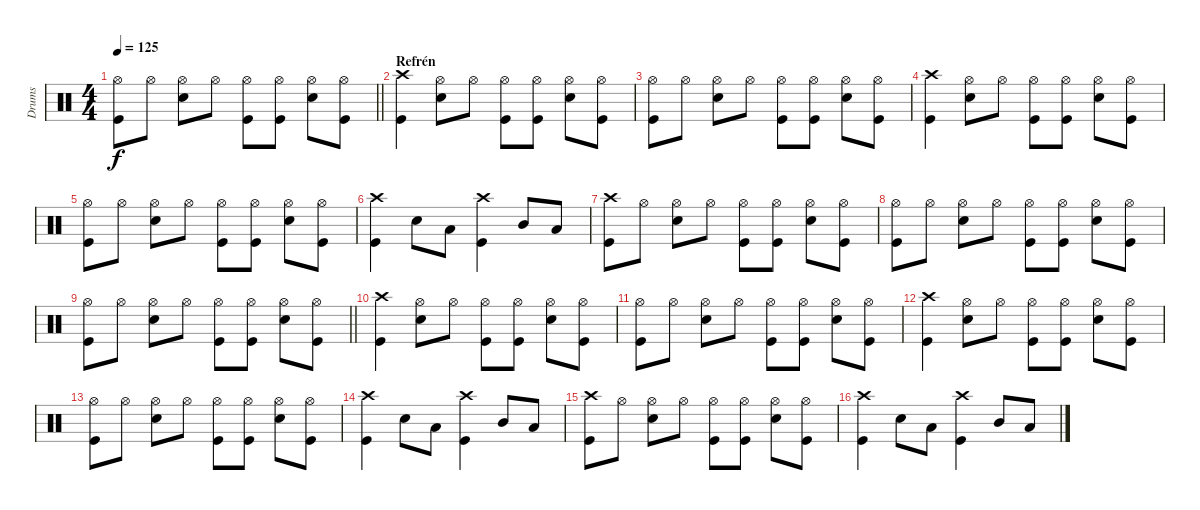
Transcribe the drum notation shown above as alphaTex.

\track ("Drums" "Drums") {instrument percussion}
\staff {score}
\articulation defaults
\ts (4 4)
\tempo 125
\clef neutral
\barLineRight lightlight
\ks c
("Hi-Hat (open)" "Kick (hit)").8{dy f} "Hi-Hat (open)".8 ("Hi-Hat (open)" "Electric Snare (hit)").8 "Hi-Hat (open)".8 ("Hi-Hat (open)" "Kick (hit)").8 ("Hi-Hat (open)" "Kick (hit)").8 ("Hi-Hat (open)" "Electric Snare (hit)").8 ("Hi-Hat (open)" "Kick (hit)").8 |
\section ("" "Refrén")
("Crash high (hit)" "Kick (hit)").4 ("Hi-Hat (open)" "Electric Snare (hit)").8 "Hi-Hat (open)".8 ("Hi-Hat (open)" "Kick (hit)").8 ("Hi-Hat (open)" "Kick (hit)").8 ("Hi-Hat (open)" "Electric Snare (hit)").8 ("Hi-Hat (open)" "Kick (hit)").8 |
("Hi-Hat (open)" "Kick (hit)").8 "Hi-Hat (open)".8 ("Hi-Hat (open)" "Electric Snare (hit)").8 "Hi-Hat (open)".8 ("Hi-Hat (open)" "Kick (hit)").8 ("Hi-Hat (open)" "Kick (hit)").8 ("Hi-Hat (open)" "Electric Snare (hit)").8 ("Hi-Hat (open)" "Kick (hit)").8 |
("Crash high (hit)" "Kick (hit)").4 ("Hi-Hat (open)" "Electric Snare (hit)").8 "Hi-Hat (open)".8 ("Hi-Hat (open)" "Kick (hit)").8 ("Hi-Hat (open)" "Kick (hit)").8 ("Hi-Hat (open)" "Electric Snare (hit)").8 ("Hi-Hat (open)" "Kick (hit)").8 |
("Hi-Hat (open)" "Kick (hit)").8 "Hi-Hat (open)".8 ("Hi-Hat (open)" "Electric Snare (hit)").8 "Hi-Hat (open)".8 ("Hi-Hat (open)" "Kick (hit)").8 ("Hi-Hat (open)" "Kick (hit)").8 ("Hi-Hat (open)" "Electric Snare (hit)").8 ("Hi-Hat (open)" "Kick (hit)").8 |
("Crash high (hit)" "Kick (hit)").4 "Electric Snare (hit)".8 "Low Tom (hit)".8 ("Crash high (hit)" "Kick (hit)").4 "Mid Tom (hit)".8 "Low Tom (hit)".8 |
("Crash high (hit)" "Kick (hit)").8 "Hi-Hat (open)".8 ("Hi-Hat (open)" "Electric Snare (hit)").8 "Hi-Hat (open)".8 ("Hi-Hat (open)" "Kick (hit)").8 ("Hi-Hat (open)" "Kick (hit)").8 ("Hi-Hat (open)" "Electric Snare (hit)").8 ("Hi-Hat (open)" "Kick (hit)").8 |
("Hi-Hat (open)" "Kick (hit)").8 "Hi-Hat (open)".8 ("Hi-Hat (open)" "Electric Snare (hit)").8 "Hi-Hat (open)".8 ("Hi-Hat (open)" "Kick (hit)").8 ("Hi-Hat (open)" "Kick (hit)").8 ("Hi-Hat (open)" "Electric Snare (hit)").8 ("Hi-Hat (open)" "Kick (hit)").8 |
\barLineRight lightlight
("Hi-Hat (open)" "Kick (hit)").8 "Hi-Hat (open)".8 ("Hi-Hat (open)" "Electric Snare (hit)").8 "Hi-Hat (open)".8 ("Hi-Hat (open)" "Kick (hit)").8 ("Hi-Hat (open)" "Kick (hit)").8 ("Hi-Hat (open)" "Electric Snare (hit)").8 ("Hi-Hat (open)" "Kick (hit)").8 |
("Crash high (hit)" "Kick (hit)").4 ("Hi-Hat (open)" "Electric Snare (hit)").8 "Hi-Hat (open)".8 ("Hi-Hat (open)" "Kick (hit)").8 ("Hi-Hat (open)" "Kick (hit)").8 ("Hi-Hat (open)" "Electric Snare (hit)").8 ("Hi-Hat (open)" "Kick (hit)").8 |
("Hi-Hat (open)" "Kick (hit)").8 "Hi-Hat (open)".8 ("Hi-Hat (open)" "Electric Snare (hit)").8 "Hi-Hat (open)".8 ("Hi-Hat (open)" "Kick (hit)").8 ("Hi-Hat (open)" "Kick (hit)").8 ("Hi-Hat (open)" "Electric Snare (hit)").8 ("Hi-Hat (open)" "Kick (hit)").8 |
("Crash high (hit)" "Kick (hit)").4 ("Hi-Hat (open)" "Electric Snare (hit)").8 "Hi-Hat (open)".8 ("Hi-Hat (open)" "Kick (hit)").8 ("Hi-Hat (open)" "Kick (hit)").8 ("Hi-Hat (open)" "Electric Snare (hit)").8 ("Hi-Hat (open)" "Kick (hit)").8 |
("Hi-Hat (open)" "Kick (hit)").8 "Hi-Hat (open)".8 ("Hi-Hat (open)" "Electric Snare (hit)").8 "Hi-Hat (open)".8 ("Hi-Hat (open)" "Kick (hit)").8 ("Hi-Hat (open)" "Kick (hit)").8 ("Hi-Hat (open)" "Electric Snare (hit)").8 ("Hi-Hat (open)" "Kick (hit)").8 |
("Crash high (hit)" "Kick (hit)").4 "Electric Snare (hit)".8 "Low Tom (hit)".8 ("Crash high (hit)" "Kick (hit)").4 "Mid Tom (hit)".8 "Low Tom (hit)".8 |
("Crash high (hit)" "Kick (hit)").8 "Hi-Hat (open)".8 ("Hi-Hat (open)" "Electric Snare (hit)").8 "Hi-Hat (open)".8 ("Hi-Hat (open)" "Kick (hit)").8 ("Hi-Hat (open)" "Kick (hit)").8 ("Hi-Hat (open)" "Electric Snare (hit)").8 ("Hi-Hat (open)" "Kick (hit)").8 |
("Crash high (hit)" "Kick (hit)").4 "Electric Snare (hit)".8 "Low Tom (hit)".8 ("Crash high (hit)" "Kick (hit)").4 "Mid Tom (hit)".8 "Low Tom (hit)".8
